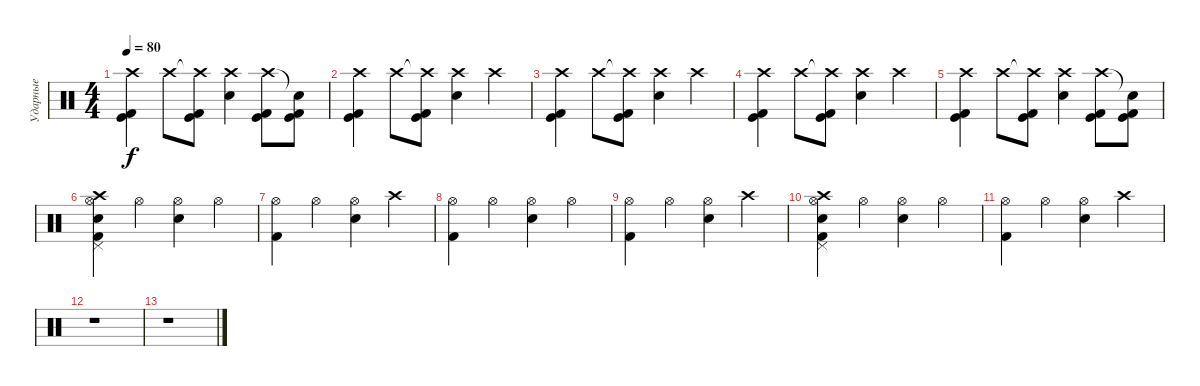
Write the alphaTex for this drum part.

\track ("Ударные" "Ударные") {instrument percussion}
\staff {score}
\articulation defaults
\ts (4 4)
\tempo 80
\clef neutral
\ks c
("Crash high (hit)" "Kick (hit)" "Kick (hit) 2").4{dy f} "Crash high (hit)".8 ("Crash high (hit)"{t} "Kick (hit)" "Kick (hit) 2").8 ("Crash high (hit)" "Electric Snare (hit)").4 ("Crash high (hit)" "Kick (hit)" "Kick (hit) 2").8 ("Snare (hit)"{t} "Kick (hit)" "Kick (hit) 2").8 |
("Crash high (hit)" "Kick (hit)" "Kick (hit) 2").4 "Crash high (hit)".8 ("Crash high (hit)"{t} "Kick (hit)" "Kick (hit) 2").8 ("Crash high (hit)" "Electric Snare (hit)").4 "Crash high (hit)".4 |
("Crash high (hit)" "Kick (hit)" "Kick (hit) 2").4 "Crash high (hit)".8 ("Crash high (hit)"{t} "Kick (hit)" "Kick (hit) 2").8 ("Crash high (hit)" "Electric Snare (hit)").4 "Crash high (hit)".4 |
("Crash high (hit)" "Kick (hit)" "Kick (hit) 2").4 "Crash high (hit)".8 ("Crash high (hit)"{t} "Kick (hit)" "Kick (hit) 2").8 ("Crash high (hit)" "Electric Snare (hit)").4 "Crash high (hit)".4 |
("Crash high (hit)" "Kick (hit)" "Kick (hit) 2").4 "Crash high (hit)".8 ("Crash high (hit)"{t} "Kick (hit)" "Kick (hit) 2").8 ("Crash high (hit)" "Electric Snare (hit)").4 ("Crash high (hit)" "Kick (hit)" "Kick (hit) 2").8 ("Snare (hit)"{t} "Kick (hit)" "Kick (hit) 2").8 |
("Crash high (hit)" "Hi-Hat (open)" "Pedal Hi-Hat (hit)" "Electric Snare (hit)" "Kick (hit) 2").4 "Hi-Hat (open)".4 ("Hi-Hat (open)" "Electric Snare (hit)").4 "Hi-Hat (open)".4 |
("Hi-Hat (open)" "Kick (hit) 2").4 "Hi-Hat (open)".4 ("Hi-Hat (open)" "Electric Snare (hit)").4 "Crash high (hit)".4 |
("Hi-Hat (open)" "Kick (hit) 2").4 "Hi-Hat (open)".4 ("Hi-Hat (open)" "Electric Snare (hit)").4 "Hi-Hat (open)".4 |
("Hi-Hat (open)" "Kick (hit) 2").4 "Hi-Hat (open)".4 ("Hi-Hat (open)" "Electric Snare (hit)").4 "Crash high (hit)".4 |
("Crash high (hit)" "Hi-Hat (open)" "Pedal Hi-Hat (hit)" "Electric Snare (hit)" "Kick (hit) 2").4 "Hi-Hat (open)".4 ("Hi-Hat (open)" "Electric Snare (hit)").4 "Hi-Hat (open)".4 |
("Hi-Hat (open)" "Kick (hit) 2").4 "Hi-Hat (open)".4 ("Hi-Hat (open)" "Electric Snare (hit)").4 "Crash high (hit)".4 |
r.1 |
r.1
